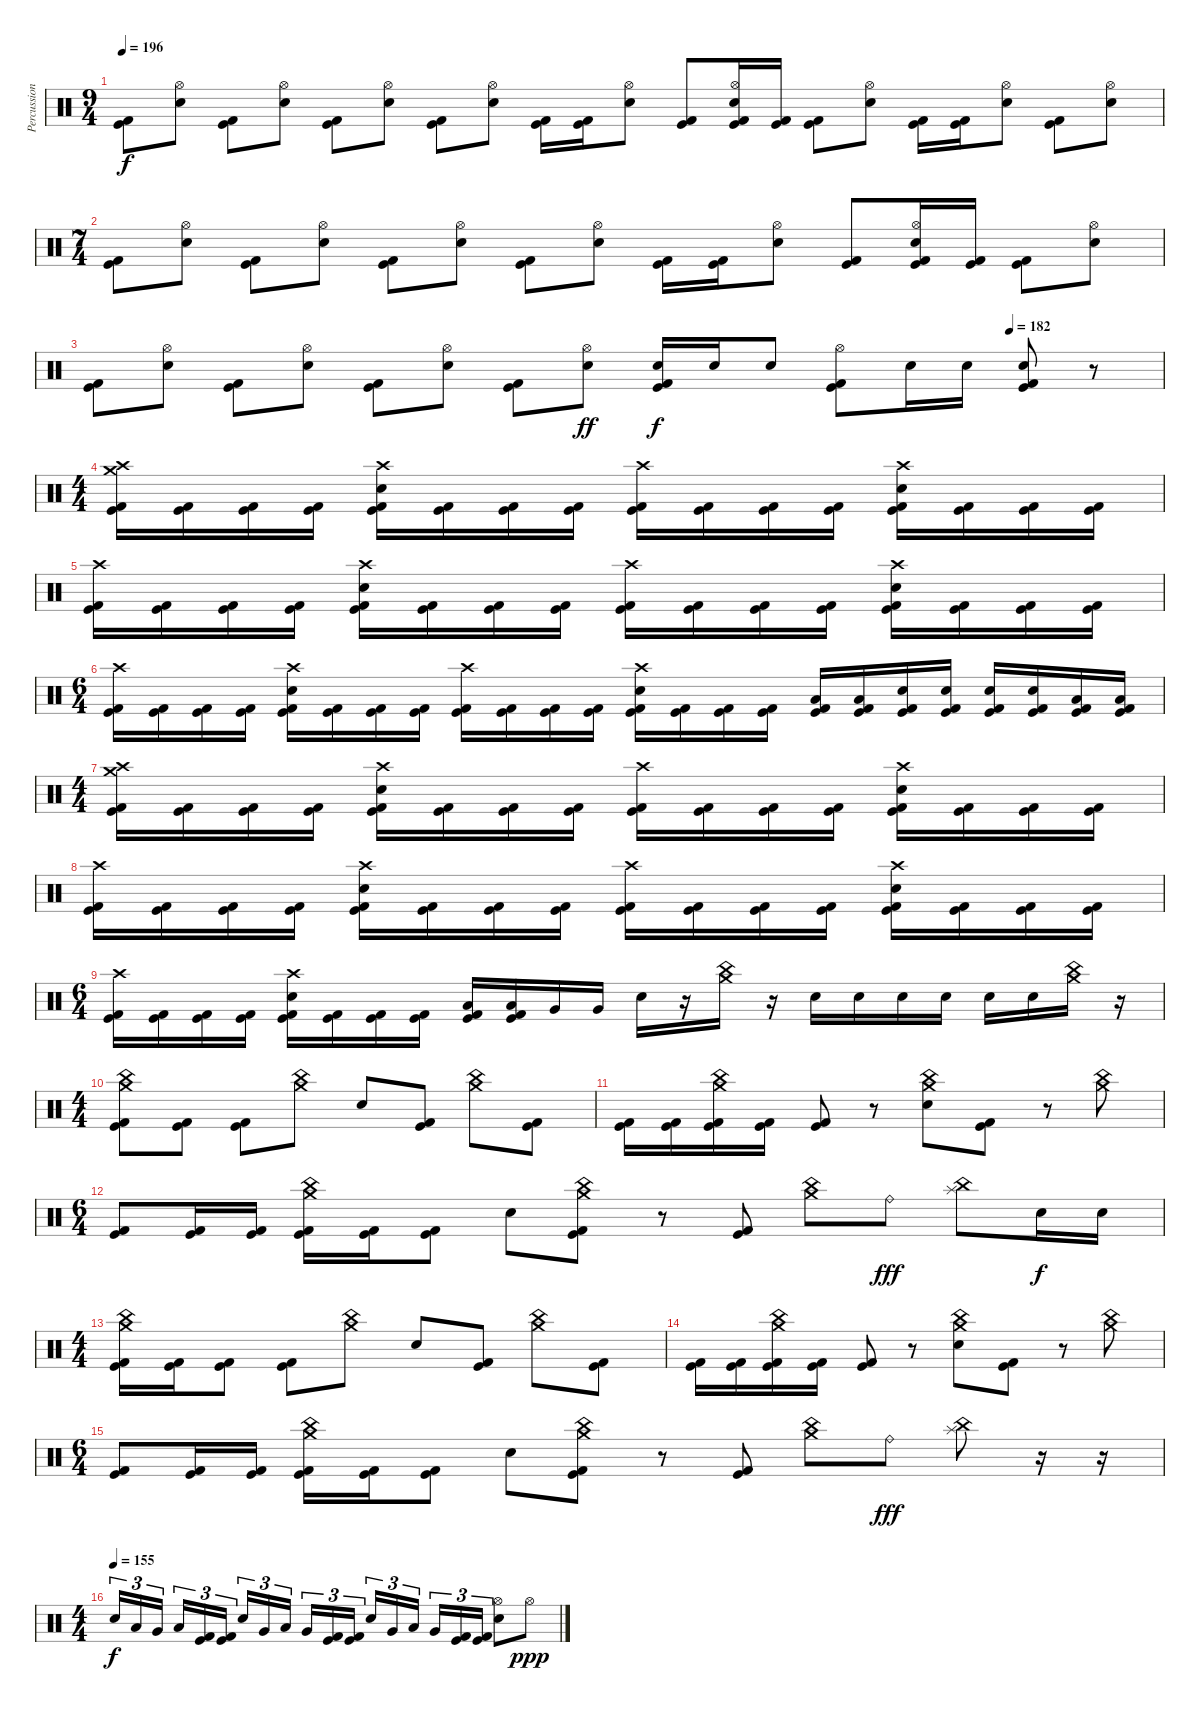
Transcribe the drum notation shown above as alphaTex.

\track ("Percussion" "Percussion") {instrument percussion}
\staff {score}
\articulation defaults
\ts (9 4)
\tempo 196
\clef neutral
\ks c
("Kick (hit)" "Kick (hit) 2").8{dy f} ("Hi-Hat (open)" "Electric Snare (hit)").8 ("Kick (hit)" "Kick (hit) 2").8 ("Hi-Hat (open)" "Electric Snare (hit)").8 ("Kick (hit)" "Kick (hit) 2").8 ("Hi-Hat (open)" "Electric Snare (hit)").8 ("Kick (hit)" "Kick (hit) 2").8 ("Hi-Hat (open)" "Electric Snare (hit)").8 ("Kick (hit)" "Kick (hit) 2").16 ("Kick (hit)" "Kick (hit) 2").16 ("Hi-Hat (open)" "Electric Snare (hit)").8 ("Kick (hit)" "Kick (hit) 2").8 ("Hi-Hat (open)" "Electric Snare (hit)" "Kick (hit)" "Kick (hit) 2").16 ("Kick (hit)" "Kick (hit) 2").16 ("Kick (hit)" "Kick (hit) 2").8 ("Hi-Hat (open)" "Electric Snare (hit)").8 ("Kick (hit)" "Kick (hit) 2").16 ("Kick (hit)" "Kick (hit) 2").16 ("Hi-Hat (open)" "Electric Snare (hit)").8 ("Kick (hit)" "Kick (hit) 2").8 ("Hi-Hat (open)" "Electric Snare (hit)").8 |
\ts (7 4)
("Kick (hit)" "Kick (hit) 2").8 ("Hi-Hat (open)" "Electric Snare (hit)").8 ("Kick (hit)" "Kick (hit) 2").8 ("Hi-Hat (open)" "Electric Snare (hit)").8 ("Kick (hit)" "Kick (hit) 2").8 ("Hi-Hat (open)" "Electric Snare (hit)").8 ("Kick (hit)" "Kick (hit) 2").8 ("Hi-Hat (open)" "Electric Snare (hit)").8 ("Kick (hit)" "Kick (hit) 2").16 ("Kick (hit)" "Kick (hit) 2").16 ("Hi-Hat (open)" "Electric Snare (hit)").8 ("Kick (hit)" "Kick (hit) 2").8 ("Hi-Hat (open)" "Electric Snare (hit)" "Kick (hit)" "Kick (hit) 2").16 ("Kick (hit)" "Kick (hit) 2").16 ("Kick (hit)" "Kick (hit) 2").8 ("Hi-Hat (open)" "Electric Snare (hit)").8 |
\tempo (182 0.8571428571428571)
("Kick (hit)" "Kick (hit) 2").8 ("Hi-Hat (open)" "Electric Snare (hit)").8 ("Kick (hit)" "Kick (hit) 2").8 ("Hi-Hat (open)" "Electric Snare (hit)").8 ("Kick (hit)" "Kick (hit) 2").8 ("Hi-Hat (open)" "Electric Snare (hit)").8 ("Kick (hit)" "Kick (hit) 2").8 ("Hi-Hat (open)" "Electric Snare (hit)").8{dy ff} ("Electric Snare (hit)" "Kick (hit)" "Kick (hit) 2").16{dy f} "Electric Snare (hit)".16 "Electric Snare (hit)".8 ("Hi-Hat (open)" "Kick (hit)" "Kick (hit) 2").8 "Electric Snare (hit)".16 "Electric Snare (hit)".16 ("Electric Snare (hit)" "Kick (hit)" "Kick (hit) 2").8 r.8 |
\ts (4 4)
("Crash medium (hit)" "Crash high (hit)" "Kick (hit)" "Kick (hit) 2").16 ("Kick (hit)" "Kick (hit) 2").16 ("Kick (hit)" "Kick (hit) 2").16 ("Kick (hit)" "Kick (hit) 2").16 ("Crash high (hit)" "Electric Snare (hit)" "Kick (hit)" "Kick (hit) 2").16 ("Kick (hit)" "Kick (hit) 2").16 ("Kick (hit)" "Kick (hit) 2").16 ("Kick (hit)" "Kick (hit) 2").16 ("Crash high (hit)" "Kick (hit)" "Kick (hit) 2").16 ("Kick (hit)" "Kick (hit) 2").16 ("Kick (hit)" "Kick (hit) 2").16 ("Kick (hit)" "Kick (hit) 2").16 ("Crash high (hit)" "Electric Snare (hit)" "Kick (hit)" "Kick (hit) 2").16 ("Kick (hit)" "Kick (hit) 2").16 ("Kick (hit)" "Kick (hit) 2").16 ("Kick (hit)" "Kick (hit) 2").16 |
("Crash high (hit)" "Kick (hit)" "Kick (hit) 2").16 ("Kick (hit)" "Kick (hit) 2").16 ("Kick (hit)" "Kick (hit) 2").16 ("Kick (hit)" "Kick (hit) 2").16 ("Crash high (hit)" "Electric Snare (hit)" "Kick (hit)" "Kick (hit) 2").16 ("Kick (hit)" "Kick (hit) 2").16 ("Kick (hit)" "Kick (hit) 2").16 ("Kick (hit)" "Kick (hit) 2").16 ("Crash high (hit)" "Kick (hit)" "Kick (hit) 2").16 ("Kick (hit)" "Kick (hit) 2").16 ("Kick (hit)" "Kick (hit) 2").16 ("Kick (hit)" "Kick (hit) 2").16 ("Crash high (hit)" "Electric Snare (hit)" "Kick (hit)" "Kick (hit) 2").16 ("Kick (hit)" "Kick (hit) 2").16 ("Kick (hit)" "Kick (hit) 2").16 ("Kick (hit)" "Kick (hit) 2").16 |
\ts (6 4)
("Crash high (hit)" "Kick (hit)" "Kick (hit) 2").16 ("Kick (hit)" "Kick (hit) 2").16 ("Kick (hit)" "Kick (hit) 2").16 ("Kick (hit)" "Kick (hit) 2").16 ("Crash high (hit)" "Electric Snare (hit)" "Kick (hit)" "Kick (hit) 2").16 ("Kick (hit)" "Kick (hit) 2").16 ("Kick (hit)" "Kick (hit) 2").16 ("Kick (hit)" "Kick (hit) 2").16 ("Crash high (hit)" "Kick (hit)" "Kick (hit) 2").16 ("Kick (hit)" "Kick (hit) 2").16 ("Kick (hit)" "Kick (hit) 2").16 ("Kick (hit)" "Kick (hit) 2").16 ("Crash high (hit)" "Electric Snare (hit)" "Kick (hit)" "Kick (hit) 2").16 ("Kick (hit)" "Kick (hit) 2").16 ("Kick (hit)" "Kick (hit) 2").16 ("Kick (hit)" "Kick (hit) 2").16 ("Low Tom (hit)" "Kick (hit)" "Kick (hit) 2").16 ("Low Tom (hit)" "Kick (hit)" "Kick (hit) 2").16 ("Electric Snare (hit)" "Kick (hit)" "Kick (hit) 2").16 ("Electric Snare (hit)" "Kick (hit)" "Kick (hit) 2").16 ("Electric Snare (hit)" "Kick (hit)" "Kick (hit) 2").16 ("Electric Snare (hit)" "Kick (hit)" "Kick (hit) 2").16 ("Low Tom (hit)" "Kick (hit)" "Kick (hit) 2").16 ("Low Tom (hit)" "Kick (hit)" "Kick (hit) 2").16 |
\ts (4 4)
("Crash medium (hit)" "Crash high (hit)" "Kick (hit)" "Kick (hit) 2").16 ("Kick (hit)" "Kick (hit) 2").16 ("Kick (hit)" "Kick (hit) 2").16 ("Kick (hit)" "Kick (hit) 2").16 ("Crash high (hit)" "Electric Snare (hit)" "Kick (hit)" "Kick (hit) 2").16 ("Kick (hit)" "Kick (hit) 2").16 ("Kick (hit)" "Kick (hit) 2").16 ("Kick (hit)" "Kick (hit) 2").16 ("Crash high (hit)" "Kick (hit)" "Kick (hit) 2").16 ("Kick (hit)" "Kick (hit) 2").16 ("Kick (hit)" "Kick (hit) 2").16 ("Kick (hit)" "Kick (hit) 2").16 ("Crash high (hit)" "Electric Snare (hit)" "Kick (hit)" "Kick (hit) 2").16 ("Kick (hit)" "Kick (hit) 2").16 ("Kick (hit)" "Kick (hit) 2").16 ("Kick (hit)" "Kick (hit) 2").16 |
("Crash high (hit)" "Kick (hit)" "Kick (hit) 2").16 ("Kick (hit)" "Kick (hit) 2").16 ("Kick (hit)" "Kick (hit) 2").16 ("Kick (hit)" "Kick (hit) 2").16 ("Crash high (hit)" "Electric Snare (hit)" "Kick (hit)" "Kick (hit) 2").16 ("Kick (hit)" "Kick (hit) 2").16 ("Kick (hit)" "Kick (hit) 2").16 ("Kick (hit)" "Kick (hit) 2").16 ("Crash high (hit)" "Kick (hit)" "Kick (hit) 2").16 ("Kick (hit)" "Kick (hit) 2").16 ("Kick (hit)" "Kick (hit) 2").16 ("Kick (hit)" "Kick (hit) 2").16 ("Crash high (hit)" "Electric Snare (hit)" "Kick (hit)" "Kick (hit) 2").16 ("Kick (hit)" "Kick (hit) 2").16 ("Kick (hit)" "Kick (hit) 2").16 ("Kick (hit)" "Kick (hit) 2").16 |
\ts (6 4)
("Crash high (hit)" "Kick (hit)" "Kick (hit) 2").16 ("Kick (hit)" "Kick (hit) 2").16 ("Kick (hit)" "Kick (hit) 2").16 ("Kick (hit)" "Kick (hit) 2").16 ("Crash high (hit)" "Electric Snare (hit)" "Kick (hit)" "Kick (hit) 2").16 ("Kick (hit)" "Kick (hit) 2").16 ("Kick (hit)" "Kick (hit) 2").16 ("Kick (hit)" "Kick (hit) 2").16 ("Low Tom (hit)" "Kick (hit)" "Kick (hit) 2").16 ("Low Tom (hit)" "Kick (hit)" "Kick (hit) 2").16 "Very Low Tom (hit)".16 "Very Low Tom (hit)".16 "Electric Snare (hit)".16 r.16 ("Crash medium (hit)" "China (hit)").16 r.16 "Electric Snare (hit)".16 "Electric Snare (hit)".16 "Electric Snare (hit)".16 "Electric Snare (hit)".16 "Electric Snare (hit)".16 "Electric Snare (hit)".16 ("Crash medium (hit)" "China (hit)").16 r.16 |
\ts (4 4)
("Crash medium (hit)" "China (hit)" "Kick (hit)" "Kick (hit) 2").8 ("Kick (hit)" "Kick (hit) 2").8 ("Kick (hit)" "Kick (hit) 2").8 ("Crash medium (hit)" "China (hit)").8 "Electric Snare (hit)".8 ("Kick (hit)" "Kick (hit) 2").8 ("Crash medium (hit)" "China (hit)").8 ("Kick (hit)" "Kick (hit) 2").8 |
("Kick (hit)" "Kick (hit) 2").16 ("Kick (hit)" "Kick (hit) 2").16 ("Crash medium (hit)" "China (hit)" "Kick (hit)" "Kick (hit) 2").16 ("Kick (hit)" "Kick (hit) 2").16 ("Kick (hit)" "Kick (hit) 2").8 r.8 ("Crash medium (hit)" "China (hit)" "Electric Snare (hit)").8 ("Kick (hit)" "Kick (hit) 2").8 r.8 ("Crash medium (hit)" "China (hit)").8 |
\ts (6 4)
("Kick (hit)" "Kick (hit) 2").8 ("Kick (hit)" "Kick (hit) 2").16 ("Kick (hit)" "Kick (hit) 2").16 ("Crash medium (hit)" "China (hit)" "Kick (hit)" "Kick (hit) 2").16 ("Kick (hit)" "Kick (hit) 2").16 ("Kick (hit)" "Kick (hit) 2").8 "Electric Snare (hit)".8 ("Crash medium (hit)" "China (hit)" "Kick (hit)" "Kick (hit) 2").8 r.8 ("Kick (hit)" "Kick (hit) 2").8 ("Crash medium (hit)" "China (hit)").8 "Ride (bell)".8{dy fff} ("China (hit)" "Splash (hit)").8 "Electric Snare (hit)".16{dy f} "Electric Snare (hit)".16 |
\ts (4 4)
("Crash medium (hit)" "China (hit)" "Kick (hit)" "Kick (hit) 2").16 ("Kick (hit)" "Kick (hit) 2").16 ("Kick (hit)" "Kick (hit) 2").8 ("Kick (hit)" "Kick (hit) 2").8 ("Crash medium (hit)" "China (hit)").8 "Electric Snare (hit)".8 ("Kick (hit)" "Kick (hit) 2").8 ("Crash medium (hit)" "China (hit)").8 ("Kick (hit)" "Kick (hit) 2").8 |
("Kick (hit)" "Kick (hit) 2").16 ("Kick (hit)" "Kick (hit) 2").16 ("Crash medium (hit)" "China (hit)" "Kick (hit)" "Kick (hit) 2").16 ("Kick (hit)" "Kick (hit) 2").16 ("Kick (hit)" "Kick (hit) 2").8 r.8 ("Crash medium (hit)" "China (hit)" "Electric Snare (hit)").8 ("Kick (hit)" "Kick (hit) 2").8 r.8 ("Crash medium (hit)" "China (hit)").8 |
\ts (6 4)
("Kick (hit)" "Kick (hit) 2").8 ("Kick (hit)" "Kick (hit) 2").16 ("Kick (hit)" "Kick (hit) 2").16 ("Crash medium (hit)" "China (hit)" "Kick (hit)" "Kick (hit) 2").16 ("Kick (hit)" "Kick (hit) 2").16 ("Kick (hit)" "Kick (hit) 2").8 "Electric Snare (hit)".8 ("Crash medium (hit)" "China (hit)" "Kick (hit)" "Kick (hit) 2").8 r.8 ("Kick (hit)" "Kick (hit) 2").8 ("Crash medium (hit)" "China (hit)").8 "Ride (bell)".8{dy fff} ("China (hit)" "Splash (hit)").8 r.16 r.16 |
\ts (4 4)
\tempo (155)
"Electric Snare (hit)".16{tu (3 2) dy f} "Low Tom (hit)".16{tu (3 2)} "Very Low Tom (hit)".16{tu (3 2) beam splitsecondary} "Low Tom (hit)".16{tu (3 2)} ("Kick (hit)" "Kick (hit) 2").16{tu (3 2)} ("Kick (hit)" "Kick (hit) 2").16{tu (3 2)} "Electric Snare (hit)".16{tu (3 2)} "Very Low Tom (hit)".16{tu (3 2)} "Low Floor Tom (hit)".16{tu (3 2) beam splitsecondary} "Very Low Tom (hit)".16{tu (3 2)} ("Kick (hit)" "Kick (hit) 2").16{tu (3 2)} ("Kick (hit)" "Kick (hit) 2").16{tu (3 2)} "Electric Snare (hit)".16{tu (3 2)} "Very Low Tom (hit)".16{tu (3 2)} "Low Floor Tom (hit)".16{tu (3 2) beam splitsecondary} "Very Low Tom (hit)".16{tu (3 2)} ("Kick (hit)" "Kick (hit) 2").16{tu (3 2)} ("Kick (hit)" "Kick (hit) 2").16{tu (3 2)} ("Hi-Hat (open)" "Electric Snare (hit)").8 "Hi-Hat (open)".8{dy ppp}
